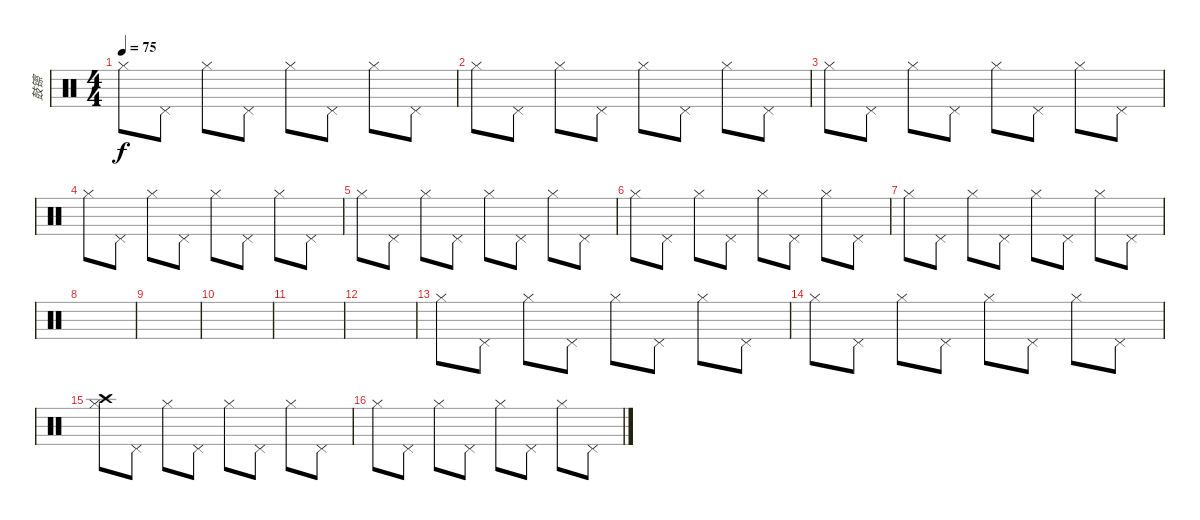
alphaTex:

\track ("鼓镲" "鼓镲") {instrument percussion}
\staff {score}
\articulation defaults
\ts (4 4)
\tempo 75
\clef neutral
\ks c "Hi-Hat (closed)".8{dy f} "Pedal Hi-Hat (hit)".8 "Hi-Hat (closed)".8 "Pedal Hi-Hat (hit)".8 "Hi-Hat (closed)".8 "Pedal Hi-Hat (hit)".8 "Hi-Hat (closed)".8 "Pedal Hi-Hat (hit)".8
|
"Hi-Hat (closed)".8 "Pedal Hi-Hat (hit)".8 "Hi-Hat (closed)".8 "Pedal Hi-Hat (hit)".8 "Hi-Hat (closed)".8 "Pedal Hi-Hat (hit)".8 "Hi-Hat (closed)".8 "Pedal Hi-Hat (hit)".8 |
"Hi-Hat (closed)".8 "Pedal Hi-Hat (hit)".8 "Hi-Hat (closed)".8 "Pedal Hi-Hat (hit)".8 "Hi-Hat (closed)".8 "Pedal Hi-Hat (hit)".8 "Hi-Hat (closed)".8 "Pedal Hi-Hat (hit)".8 |
"Hi-Hat (closed)".8 "Pedal Hi-Hat (hit)".8 "Hi-Hat (closed)".8 "Pedal Hi-Hat (hit)".8 "Hi-Hat (closed)".8 "Pedal Hi-Hat (hit)".8 "Hi-Hat (closed)".8 "Pedal Hi-Hat (hit)".8 |
"Hi-Hat (closed)".8 "Pedal Hi-Hat (hit)".8 "Hi-Hat (closed)".8 "Pedal Hi-Hat (hit)".8 "Hi-Hat (closed)".8 "Pedal Hi-Hat (hit)".8 "Hi-Hat (closed)".8 "Pedal Hi-Hat (hit)".8 |
"Hi-Hat (closed)".8 "Pedal Hi-Hat (hit)".8 "Hi-Hat (closed)".8 "Pedal Hi-Hat (hit)".8 "Hi-Hat (closed)".8 "Pedal Hi-Hat (hit)".8 "Hi-Hat (closed)".8 "Pedal Hi-Hat (hit)".8 |
"Hi-Hat (closed)".8 "Pedal Hi-Hat (hit)".8 "Hi-Hat (closed)".8 "Pedal Hi-Hat (hit)".8 "Hi-Hat (closed)".8 "Pedal Hi-Hat (hit)".8 "Hi-Hat (closed)".8 "Pedal Hi-Hat (hit)".8 |
|
|
|
|
|
"Hi-Hat (closed)".8 "Pedal Hi-Hat (hit)".8 "Hi-Hat (closed)".8 "Pedal Hi-Hat (hit)".8 "Hi-Hat (closed)".8 "Pedal Hi-Hat (hit)".8 "Hi-Hat (closed)".8 "Pedal Hi-Hat (hit)".8 |
"Hi-Hat (closed)".8 "Pedal Hi-Hat (hit)".8 "Hi-Hat (closed)".8 "Pedal Hi-Hat (hit)".8 "Hi-Hat (closed)".8 "Pedal Hi-Hat (hit)".8 "Hi-Hat (closed)".8 "Pedal Hi-Hat (hit)".8 |
("Hi-Hat (closed)" "Crash high (hit)").8 "Pedal Hi-Hat (hit)".8 "Hi-Hat (closed)".8 "Pedal Hi-Hat (hit)".8 "Hi-Hat (closed)".8 "Pedal Hi-Hat (hit)".8 "Hi-Hat (closed)".8 "Pedal Hi-Hat (hit)".8 |
"Hi-Hat (closed)".8 "Pedal Hi-Hat (hit)".8 "Hi-Hat (closed)".8 "Pedal Hi-Hat (hit)".8 "Hi-Hat (closed)".8 "Pedal Hi-Hat (hit)".8 "Hi-Hat (closed)".8 "Pedal Hi-Hat (hit)".8
